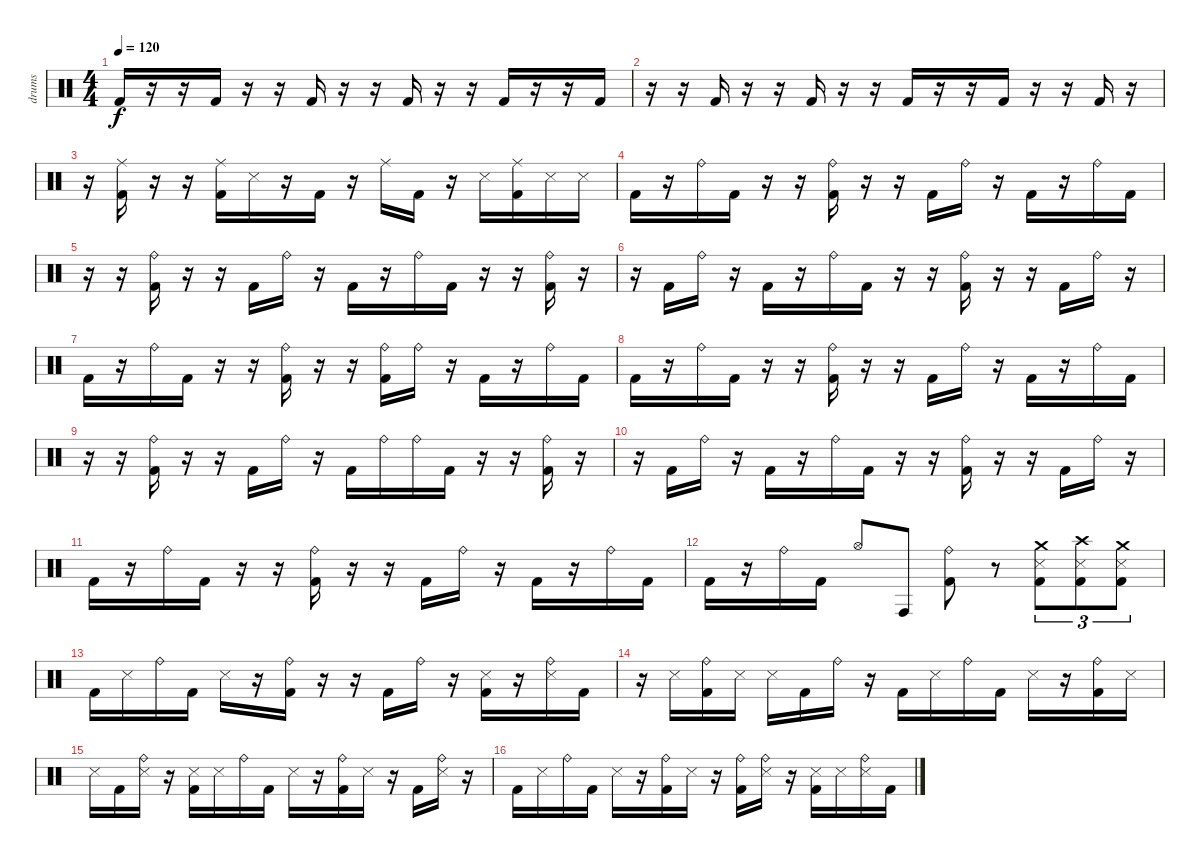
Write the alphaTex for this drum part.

\track ("drums" "drums") {instrument percussion}
\staff {score}
\articulation defaults
\ts (4 4)
\tempo 120
\clef neutral
\ks c "Kick (hit) 2".16{dy f}
r.16 r.16 "Kick (hit) 2".16 r.16 r.16 "Kick (hit) 2".16 r.16 r.16 "Kick (hit) 2".16 r.16 r.16 "Kick (hit) 2".16 r.16 r.16 "Kick (hit) 2".16 |
r.16 r.16 "Kick (hit) 2".16 r.16 r.16 "Kick (hit) 2".16 r.16 r.16 "Kick (hit) 2".16 r.16 r.16 "Kick (hit) 2".16 r.16 r.16 "Kick (hit) 2".16 r.16 |
r.16 ("Ride (middle)" "Kick (hit) 2").16 r.16 r.16 ("Ride (middle)" "Kick (hit) 2").16 "Snare (side stick) 3".16 r.16 "Kick (hit) 2".16 r.16 "Ride (middle)".16 "Kick (hit) 2".16 r.16 "Snare (side stick) 3".16 ("Ride (middle)" "Kick (hit) 2").16 "Snare (side stick) 3".16 "Snare (side stick) 3".16 |
"Kick (hit) 2".16 r.16 "Ride (bell)".16 "Kick (hit) 2".16 r.16 r.16 ("Ride (bell)" "Kick (hit) 2").16 r.16 r.16 "Kick (hit) 2".16 "Ride (bell)".16 r.16 "Kick (hit) 2".16 r.16 "Ride (bell)".16 "Kick (hit) 2".16 |
r.16 r.16 ("Ride (bell)" "Kick (hit) 2").16 r.16 r.16 "Kick (hit) 2".16 "Ride (bell)".16 r.16 "Kick (hit) 2".16 r.16 "Ride (bell)".16 "Kick (hit) 2".16 r.16 r.16 ("Ride (bell)" "Kick (hit) 2").16 r.16 |
r.16 "Kick (hit) 2".16 "Ride (bell)".16 r.16 "Kick (hit) 2".16 r.16 "Ride (bell)".16 "Kick (hit) 2".16 r.16 r.16 ("Ride (bell)" "Kick (hit) 2").16 r.16 r.16 "Kick (hit) 2".16 "Ride (bell)".16 r.16 |
"Kick (hit) 2".16 r.16 "Ride (bell)".16 "Kick (hit) 2".16 r.16 r.16 ("Ride (bell)" "Kick (hit) 2").16 r.16 r.16 ("Ride (bell)" "Kick (hit) 2").16 "Ride (bell)".16 r.16 "Kick (hit) 2".16 r.16 "Ride (bell)".16 "Kick (hit) 2".16 |
"Kick (hit) 2".16 r.16 "Ride (bell)".16 "Kick (hit) 2".16 r.16 r.16 ("Ride (bell)" "Kick (hit) 2").16 r.16 r.16 "Kick (hit) 2".16 "Ride (bell)".16 r.16 "Kick (hit) 2".16 r.16 "Ride (bell)".16 "Kick (hit) 2".16 |
r.16 r.16 ("Ride (bell)" "Kick (hit) 2").16 r.16 r.16 "Kick (hit) 2".16 "Ride (bell)".16 r.16 "Kick (hit) 2".16 "Ride (bell)".16 "Ride (bell)".16 "Kick (hit) 2".16 r.16 r.16 ("Ride (bell)" "Kick (hit) 2").16 r.16 |
r.16 "Kick (hit) 2".16 "Ride (bell)".16 r.16 "Kick (hit) 2".16 r.16 "Ride (bell)".16 "Kick (hit) 2".16 r.16 r.16 ("Ride (bell)" "Kick (hit) 2").16 r.16 r.16 "Kick (hit) 2".16 "Ride (bell)".16 r.16 |
"Kick (hit) 2".16 r.16 "Ride (bell)".16 "Kick (hit) 2".16 r.16 r.16 ("Ride (bell)" "Kick (hit) 2").16 r.16 r.16 "Kick (hit) 2".16 "Ride (bell)".16 r.16 "Kick (hit) 2".16 r.16 "Ride (bell)".16 "Kick (hit) 2".16 |
"Kick (hit) 2".16 r.16 "Ride (bell)".16 "Kick (hit) 2".16 "Hi-Hat (open)".8 "Conga high (hit)".8 ("Ride (bell)" "Kick (hit) 2").8 r.8 ("Crash medium (hit)" "Snare (side stick) 3" "Kick (hit) 2").8{tu (3 2)} ("Crash high (hit)" "Snare (side stick) 3" "Kick (hit) 2").8{tu (3 2)} ("Crash medium (hit)" "Snare (side stick) 3" "Kick (hit) 2").8{tu (3 2)} |
"Kick (hit) 2".16 "Snare (side stick) 3".16 "Ride (bell)".16 "Kick (hit) 2".16 "Snare (side stick) 3".16 r.16 ("Ride (bell)" "Kick (hit) 2").16 r.16 r.16 "Kick (hit) 2".16 "Ride (bell)".16 r.16 ("Snare (side stick) 3" "Kick (hit) 2").16 r.16 ("Ride (bell)" "Snare (side stick) 3").16 "Kick (hit) 2".16 |
r.16 "Snare (side stick) 3".16 ("Ride (bell)" "Kick (hit) 2").16 "Snare (side stick) 3".16 "Snare (side stick) 3".16 "Kick (hit) 2".16 "Ride (bell)".16 r.16 "Kick (hit) 2".16 "Snare (side stick) 3".16 "Ride (bell)".16 "Kick (hit) 2".16 "Snare (side stick) 3".16 r.16 ("Ride (bell)" "Kick (hit) 2").16 "Snare (side stick) 3".16 |
"Snare (side stick) 3".16 "Kick (hit) 2".16 ("Ride (bell)" "Snare (side stick) 3").16 r.16 ("Snare (side stick) 3" "Kick (hit) 2").16 "Snare (side stick) 3".16 "Ride (bell)".16 "Kick (hit) 2".16 "Snare (side stick) 3".16 r.16 ("Ride (bell)" "Kick (hit) 2").16 "Snare (side stick) 3".16 r.16 "Kick (hit) 2".16 ("Ride (bell)" "Snare (side stick) 3").16 r.16 |
"Kick (hit) 2".16 "Snare (side stick) 3".16 "Ride (bell)".16 "Kick (hit) 2".16 "Snare (side stick) 3".16 r.16 ("Ride (bell)" "Kick (hit) 2").16 "Snare (side stick) 3".16 r.16 ("Ride (bell)" "Kick (hit) 2").16 ("Ride (bell)" "Snare (side stick) 3").16 r.16 ("Snare (side stick) 3" "Kick (hit) 2").16 "Snare (side stick) 3".16 ("Ride (bell)" "Snare (side stick) 3").16 "Kick (hit) 2".16
